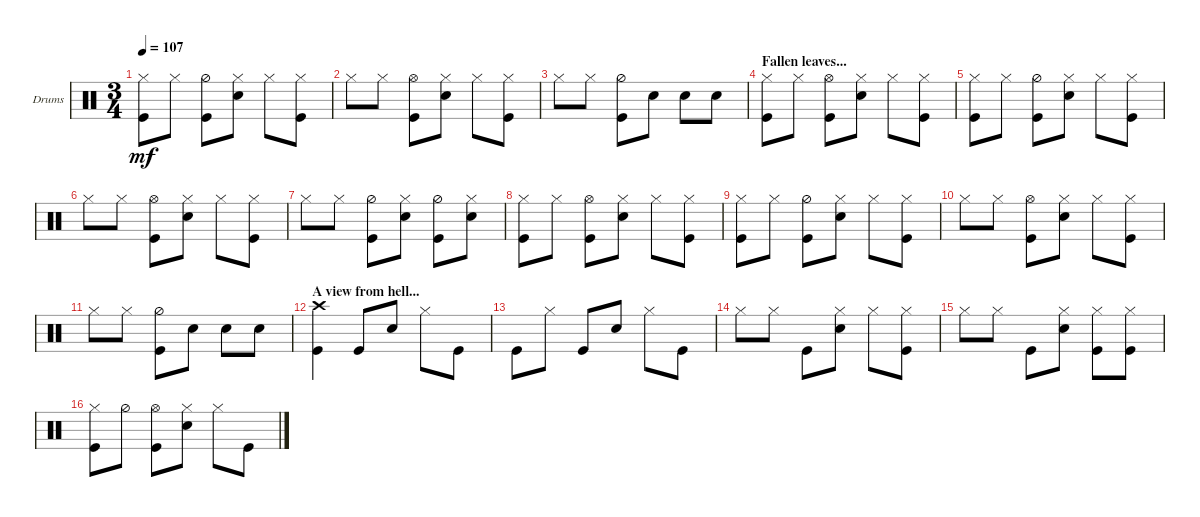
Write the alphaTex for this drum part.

\defaultSystemsLayout 4
\bracketExtendMode groupsimilarinstruments
\firstSystemTrackNameOrientation horizontal
\otherSystemsTrackNameOrientation horizontal
\track ("Drumkit" "Drums") {instrument percussion}
\staff {score}
\articulation defaults
\ts (3 4)
\tempo 107
\clef neutral
\ks c
("Hi-Hat (closed)" "Kick (hit)").8{dy mf} "Hi-Hat (closed)".8 ("Hi-Hat (half)" "Kick (hit)").8 ("Hi-Hat (closed)" "Snare (hit) 2").8 "Hi-Hat (closed)".8 ("Hi-Hat (closed)" "Kick (hit)").8 |
"Hi-Hat (closed)".8 "Hi-Hat (closed)".8 ("Hi-Hat (open)" "Kick (hit)").8 ("Snare (hit) 2" "Hi-Hat (closed)").8 "Hi-Hat (closed)".8 ("Kick (hit)" "Hi-Hat (closed)").8 |
"Hi-Hat (closed)".8 "Hi-Hat (closed)".8 ("Hi-Hat (half)" "Kick (hit)").8 "Snare (hit) 2".8 "Snare (hit) 2".8 "Snare (hit) 2".8 |
\section ("" "Fallen leaves...")
("Hi-Hat (closed)" "Kick (hit)").8 "Hi-Hat (closed)".8 ("Hi-Hat (open)" "Kick (hit)").8 ("Snare (hit) 2" "Hi-Hat (closed)").8 "Hi-Hat (closed)".8 ("Hi-Hat (closed)" "Kick (hit)").8 |
("Hi-Hat (closed)" "Kick (hit)").8 "Hi-Hat (closed)".8 ("Hi-Hat (half)" "Kick (hit)").8 ("Hi-Hat (closed)" "Snare (hit) 2").8 "Hi-Hat (closed)".8 ("Hi-Hat (closed)" "Kick (hit)").8 |
"Hi-Hat (closed)".8 "Hi-Hat (closed)".8 ("Hi-Hat (open)" "Kick (hit)").8 ("Snare (hit) 2" "Hi-Hat (closed)").8 "Hi-Hat (closed)".8 ("Kick (hit)" "Hi-Hat (closed)").8 |
"Hi-Hat (closed)".8 "Hi-Hat (closed)".8 ("Hi-Hat (half)" "Kick (hit)").8 ("Hi-Hat (closed)" "Snare (hit) 2").8 ("Hi-Hat (half)" "Kick (hit)").8 ("Hi-Hat (closed)" "Snare (hit) 2").8 |
("Hi-Hat (closed)" "Kick (hit)").8 "Hi-Hat (closed)".8 ("Hi-Hat (open)" "Kick (hit)").8 ("Snare (hit) 2" "Hi-Hat (closed)").8 "Hi-Hat (closed)".8 ("Hi-Hat (closed)" "Kick (hit)").8 |
("Hi-Hat (closed)" "Kick (hit)").8 "Hi-Hat (closed)".8 ("Hi-Hat (half)" "Kick (hit)").8 ("Hi-Hat (closed)" "Snare (hit) 2").8 "Hi-Hat (closed)".8 ("Hi-Hat (closed)" "Kick (hit)").8 |
"Hi-Hat (closed)".8 "Hi-Hat (closed)".8 ("Hi-Hat (open)" "Kick (hit)").8 ("Snare (hit) 2" "Hi-Hat (closed)").8 "Hi-Hat (closed)".8 ("Kick (hit)" "Hi-Hat (closed)").8 |
"Hi-Hat (closed)".8 "Hi-Hat (closed)".8 ("Hi-Hat (half)" "Kick (hit)").8 "Snare (hit) 2".8 "Snare (hit) 2".8 "Snare (hit) 2".8 |
\section ("" "A view from hell...")
("Crash high (hit)" "Kick (hit)").4 "Kick (hit)".8 "Snare (hit) 2".8 "Hi-Hat (closed)".8 "Kick (hit)".8 |
"Kick (hit)".8 "Hi-Hat (closed)".8 "Kick (hit)".8 "Snare (hit) 2".8 "Hi-Hat (closed)".8 "Kick (hit)".8 |
"Hi-Hat (closed)".8 "Hi-Hat (closed)".8 "Kick (hit)".8 ("Snare (hit) 2" "Hi-Hat (closed)").8 "Hi-Hat (closed)".8 ("Kick (hit)" "Hi-Hat (closed)").8 |
"Hi-Hat (closed)".8 "Hi-Hat (closed)".8 "Kick (hit)".8 ("Snare (hit) 2" "Hi-Hat (closed)").8 ("Kick (hit)" "Hi-Hat (closed)").8 ("Kick (hit)" "Hi-Hat (closed)").8 |
("Kick (hit)" "Hi-Hat (closed)").8 "Hi-Hat (half)".8 ("Kick (hit)" "Hi-Hat (open)").8 ("Snare (hit) 2" "Hi-Hat (closed)").8 "Hi-Hat (closed)".8 "Kick (hit)".8
